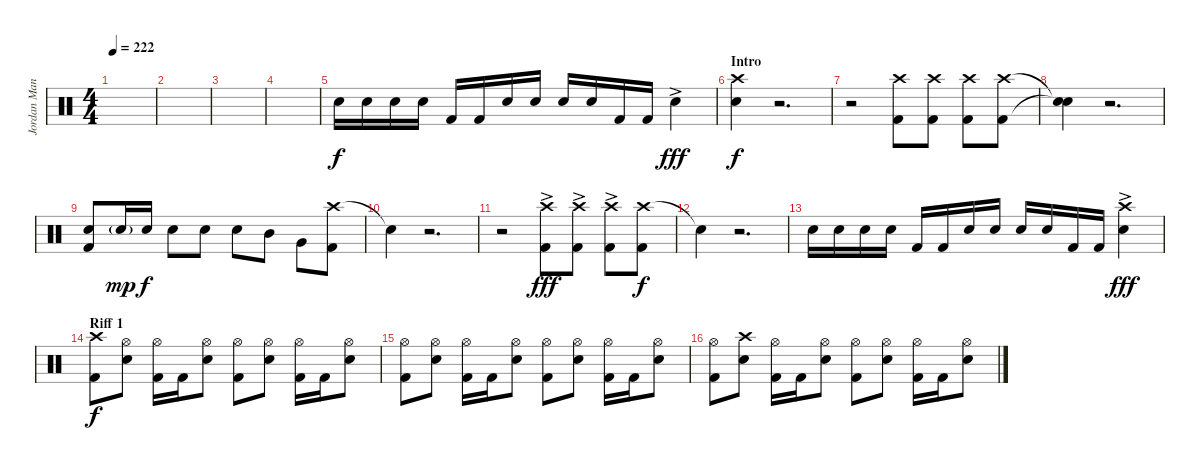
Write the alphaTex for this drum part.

\track ("Jordan Mancino (Drums)" "Jordan Man") {instrument percussion}
\staff {score}
\articulation defaults
\ts (4 4)
\tempo 222
\clef neutral
\ks c
|
|
|
|
"Snare (hit) 2".16 "Snare (hit) 2".16 "Snare (hit) 2".16 "Snare (hit) 2".16 "Kick (hit) 2".16 "Kick (hit) 2".16 "Snare (hit) 2".16 "Snare (hit) 2".16 "Snare (hit) 2".16 "Snare (hit) 2".16 "Kick (hit) 2".16 "Kick (hit) 2".16 "Snare (hit) 2"{ac}.4{dy fff} |
\section ("" "Intro")
("Crash high (hit)" "Snare (hit) 2").4{dy f} r.2{d volume 0} |
r.2 ("Crash high (hit)" "Kick (hit) 2").8{volume 16} ("Crash high (hit)" "Kick (hit) 2").8 ("Crash high (hit)" "Kick (hit) 2").8 ("Crash high (hit)" "Kick (hit) 2").8 |
("Snare (hit)"{t} "Snare (hit)"{t}).4 r.2{d volume 0} |
("Snare (hit) 2" "Kick (hit) 2").8{volume 16} "Snare (hit) 2"{g}.16{dy mp} "Snare (hit) 2".16{dy f} "Snare (hit) 2".8 "Snare (hit) 2".8 "Snare (hit) 2".8 "Mid Tom (hit)".8 "Very Low Tom (hit)".8 ("Crash high (hit)" "Kick (hit) 2").8 |
"Snare (hit)"{t}.4 r.2{d volume 0} |
r.2 ("Crash high (hit)"{ac} "Kick (hit) 2").8{dy fff volume 16} ("Crash high (hit)"{ac} "Kick (hit) 2").8 ("Crash high (hit)"{ac} "Kick (hit) 2").8 ("Crash high (hit)" "Kick (hit) 2").8{dy f} |
"Snare (hit)"{t}.4 r.2{d volume 0} |
"Snare (hit) 2".16{volume 16} "Snare (hit) 2".16 "Snare (hit) 2".16 "Snare (hit) 2".16 "Kick (hit) 2".16 "Kick (hit) 2".16 "Snare (hit) 2".16 "Snare (hit) 2".16 "Snare (hit) 2".16 "Snare (hit) 2".16 "Kick (hit) 2".16 "Kick (hit) 2".16 ("Crash high (hit)"{ac} "Snare (hit) 2").4{dy fff} |
\section ("" "Riff 1")
("Crash high (hit)" "Kick (hit) 2").8{dy f volume 16} ("Hi-Hat (open)" "Snare (hit) 2").8 ("Hi-Hat (open)" "Kick (hit) 2").16 "Kick (hit) 2".16 ("Hi-Hat (open)" "Snare (hit) 2").8 ("Hi-Hat (open)" "Kick (hit) 2").8 ("Hi-Hat (open)" "Snare (hit) 2").8 ("Hi-Hat (open)" "Kick (hit) 2").16 "Kick (hit) 2".16 ("Hi-Hat (open)" "Snare (hit) 2").8 |
("Hi-Hat (open)" "Kick (hit) 2").8 ("Hi-Hat (open)" "Snare (hit) 2").8 ("Hi-Hat (open)" "Kick (hit) 2").16 "Kick (hit) 2".16 ("Hi-Hat (open)" "Snare (hit) 2").8 ("Hi-Hat (open)" "Kick (hit) 2").8 ("Hi-Hat (open)" "Snare (hit) 2").8 ("Hi-Hat (open)" "Kick (hit) 2").16 "Kick (hit) 2".16 ("Hi-Hat (open)" "Snare (hit) 2").8 |
("Hi-Hat (open)" "Kick (hit) 2").8{volume 16} ("Crash high (hit)" "Snare (hit) 2").8 ("Hi-Hat (open)" "Kick (hit) 2").16 "Kick (hit) 2".16 ("Hi-Hat (open)" "Snare (hit) 2").8 ("Hi-Hat (open)" "Kick (hit) 2").8 ("Hi-Hat (open)" "Snare (hit) 2").8 ("Hi-Hat (open)" "Kick (hit) 2").16 "Kick (hit) 2".16 ("Hi-Hat (open)" "Snare (hit) 2").8
